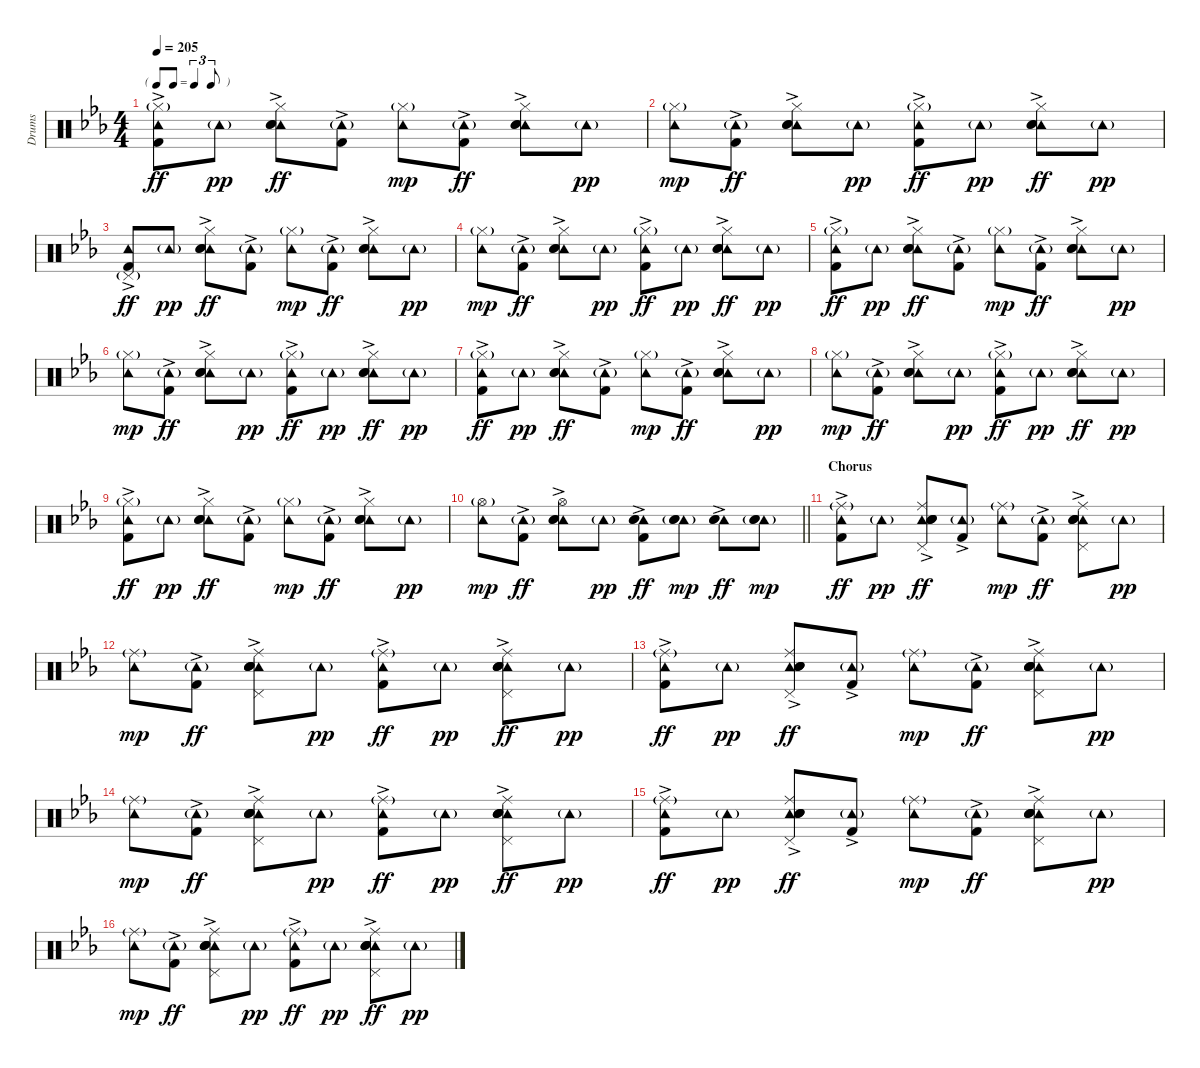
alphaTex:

\track ("Drums" "Drums") {instrument percussion}
\staff {score}
\articulation defaults
\ts (4 4)
\tf triplet8th
\tempo 205
\clef neutral
\ks eb
("Hi-Hat (closed)"{g} "Tambourine (hit)" "Kick (hit) 2"{ac}).8{dy ff} "Tambourine (hit)"{g}.8{dy pp} ("Hi-Hat (closed)" "Tambourine (hit)"{ac} "Electric Snare (hit)"{ac} "Snare (hit) 2").8{dy ff} ("Tambourine (hit)"{g} "Kick (hit) 2"{ac}).8 ("Hi-Hat (closed)"{g} "Tambourine (hit)").8{dy mp} ("Tambourine (hit)"{g} "Kick (hit) 2"{ac}).8{dy ff} ("Hi-Hat (closed)" "Tambourine (hit)"{ac} "Electric Snare (hit)"{ac} "Snare (hit) 2").8 "Tambourine (hit)"{g}.8{dy pp} |
("Hi-Hat (closed)"{g} "Tambourine (hit)").8{dy mp} ("Tambourine (hit)"{g} "Kick (hit) 2"{ac}).8{dy ff} ("Hi-Hat (closed)" "Tambourine (hit)"{ac} "Electric Snare (hit)"{ac} "Snare (hit) 2").8 "Tambourine (hit)"{g}.8{dy pp} ("Hi-Hat (closed)"{g} "Tambourine (hit)" "Kick (hit) 2"{ac}).8{dy ff} "Tambourine (hit)"{g}.8{dy pp} ("Hi-Hat (closed)" "Tambourine (hit)"{ac} "Electric Snare (hit)"{ac} "Snare (hit) 2").8{dy ff} "Tambourine (hit)"{g}.8{dy pp} |
("Pedal Hi-Hat (hit)"{g} "Tambourine (hit)" "Kick (hit) 2"{ac}).8{dy ff} "Tambourine (hit)"{g}.8{dy pp} ("Hi-Hat (closed)" "Tambourine (hit)"{ac} "Electric Snare (hit)"{ac} "Snare (hit) 2").8{dy ff} ("Tambourine (hit)"{g} "Kick (hit) 2"{ac}).8 ("Hi-Hat (closed)"{g} "Tambourine (hit)").8{dy mp} ("Tambourine (hit)"{g} "Kick (hit) 2"{ac}).8{dy ff} ("Hi-Hat (closed)" "Tambourine (hit)"{ac} "Electric Snare (hit)"{ac} "Snare (hit) 2").8 "Tambourine (hit)"{g}.8{dy pp} |
("Hi-Hat (closed)"{g} "Tambourine (hit)").8{dy mp} ("Tambourine (hit)"{g} "Kick (hit) 2"{ac}).8{dy ff} ("Hi-Hat (closed)" "Tambourine (hit)"{ac} "Electric Snare (hit)"{ac} "Snare (hit) 2").8 "Tambourine (hit)"{g}.8{dy pp} ("Hi-Hat (closed)"{g} "Tambourine (hit)" "Kick (hit) 2"{ac}).8{dy ff} "Tambourine (hit)"{g}.8{dy pp} ("Hi-Hat (closed)" "Tambourine (hit)"{ac} "Electric Snare (hit)"{ac} "Snare (hit) 2").8{dy ff} "Tambourine (hit)"{g}.8{dy pp} |
("Hi-Hat (closed)"{g} "Tambourine (hit)" "Kick (hit) 2"{ac}).8{dy ff} "Tambourine (hit)"{g}.8{dy pp} ("Hi-Hat (closed)" "Tambourine (hit)"{ac} "Electric Snare (hit)"{ac} "Snare (hit) 2").8{dy ff} ("Tambourine (hit)"{g} "Kick (hit) 2"{ac}).8 ("Hi-Hat (closed)"{g} "Tambourine (hit)").8{dy mp} ("Tambourine (hit)"{g} "Kick (hit) 2"{ac}).8{dy ff} ("Hi-Hat (closed)" "Tambourine (hit)"{ac} "Electric Snare (hit)"{ac} "Snare (hit) 2").8 "Tambourine (hit)"{g}.8{dy pp} |
("Hi-Hat (closed)"{g} "Tambourine (hit)").8{dy mp} ("Tambourine (hit)"{g} "Kick (hit) 2"{ac}).8{dy ff} ("Hi-Hat (closed)" "Tambourine (hit)"{ac} "Electric Snare (hit)"{ac} "Snare (hit) 2").8 "Tambourine (hit)"{g}.8{dy pp} ("Hi-Hat (closed)"{g} "Tambourine (hit)" "Kick (hit) 2"{ac}).8{dy ff} "Tambourine (hit)"{g}.8{dy pp} ("Hi-Hat (closed)" "Tambourine (hit)"{ac} "Electric Snare (hit)"{ac} "Snare (hit) 2").8{dy ff} "Tambourine (hit)"{g}.8{dy pp} |
("Hi-Hat (closed)"{g} "Tambourine (hit)" "Kick (hit) 2"{ac}).8{dy ff} "Tambourine (hit)"{g}.8{dy pp} ("Hi-Hat (closed)" "Tambourine (hit)"{ac} "Electric Snare (hit)"{ac} "Snare (hit) 2").8{dy ff} ("Tambourine (hit)"{g} "Kick (hit) 2"{ac}).8 ("Hi-Hat (closed)"{g} "Tambourine (hit)").8{dy mp} ("Tambourine (hit)"{g} "Kick (hit) 2"{ac}).8{dy ff} ("Hi-Hat (closed)" "Tambourine (hit)"{ac} "Electric Snare (hit)"{ac} "Snare (hit) 2").8 "Tambourine (hit)"{g}.8{dy pp} |
("Hi-Hat (closed)"{g} "Tambourine (hit)").8{dy mp} ("Tambourine (hit)"{g} "Kick (hit) 2"{ac}).8{dy ff} ("Hi-Hat (closed)" "Tambourine (hit)"{ac} "Electric Snare (hit)"{ac} "Snare (hit) 2").8 "Tambourine (hit)"{g}.8{dy pp} ("Hi-Hat (closed)"{g} "Tambourine (hit)" "Kick (hit) 2"{ac}).8{dy ff} "Tambourine (hit)"{g}.8{dy pp} ("Hi-Hat (closed)" "Tambourine (hit)"{ac} "Electric Snare (hit)"{ac} "Snare (hit) 2").8{dy ff} "Tambourine (hit)"{g}.8{dy pp} |
("Hi-Hat (closed)"{g} "Tambourine (hit)" "Kick (hit) 2"{ac}).8{dy ff} "Tambourine (hit)"{g}.8{dy pp} ("Hi-Hat (closed)" "Tambourine (hit)"{ac} "Electric Snare (hit)"{ac} "Snare (hit) 2").8{dy ff} ("Tambourine (hit)"{g} "Kick (hit) 2"{ac}).8 ("Hi-Hat (closed)"{g} "Tambourine (hit)").8{dy mp} ("Tambourine (hit)"{g} "Kick (hit) 2"{ac}).8{dy ff} ("Hi-Hat (closed)" "Tambourine (hit)"{ac} "Electric Snare (hit)"{ac} "Snare (hit) 2").8 "Tambourine (hit)"{g}.8{dy pp} |
\barLineRight lightlight
("Hi-Hat (open)"{g} "Tambourine (hit)").8{dy mp} ("Tambourine (hit)"{g} "Kick (hit) 2"{ac}).8{dy ff} ("Hi-Hat (open)" "Tambourine (hit)"{ac} "Electric Snare (hit)"{ac} "Snare (hit) 2").8 "Tambourine (hit)"{g}.8{dy pp} ("Tambourine (hit)" "Electric Snare (hit)"{ac} "Snare (hit) 2" "Kick (hit) 2"{ac}).8{dy ff} ("Tambourine (hit)"{g} "Electric Snare (hit)"{g} "Snare (hit) 2").8{dy mp} ("Tambourine (hit)"{ac} "Electric Snare (hit)"{ac} "Snare (hit) 2").8{dy ff} ("Tambourine (hit)"{g} "Electric Snare (hit)"{g} "Snare (hit) 2").8{dy mp} |
\section ("" "Chorus")
("Ride (middle)"{g} "Tambourine (hit)" "Kick (hit) 2"{ac}).8{dy ff} "Tambourine (hit)"{g}.8{dy pp} ("Ride (middle)" "Tambourine (hit)"{ac} "Hand Clap (hit)" "Electric Snare (hit)"{ac} "Snare (hit) 2" "Pedal Hi-Hat (hit)").8{dy ff} ("Tambourine (hit)"{g} "Kick (hit) 2"{ac}).8 ("Ride (middle)"{g} "Tambourine (hit)").8{dy mp} ("Tambourine (hit)"{g} "Kick (hit) 2"{ac}).8{dy ff} ("Ride (middle)" "Tambourine (hit)"{ac} "Hand Clap (hit)" "Electric Snare (hit)"{ac} "Snare (hit) 2" "Pedal Hi-Hat (hit)").8 "Tambourine (hit)"{g}.8{dy pp} |
("Ride (middle)"{g} "Tambourine (hit)").8{dy mp} ("Tambourine (hit)"{g} "Kick (hit) 2"{ac}).8{dy ff} ("Ride (middle)" "Tambourine (hit)"{ac} "Hand Clap (hit)" "Electric Snare (hit)"{ac} "Snare (hit) 2" "Pedal Hi-Hat (hit)").8 "Tambourine (hit)"{g}.8{dy pp} ("Ride (middle)"{g} "Tambourine (hit)" "Kick (hit) 2"{ac}).8{dy ff} "Tambourine (hit)"{g}.8{dy pp} ("Ride (middle)" "Tambourine (hit)"{ac} "Hand Clap (hit)" "Electric Snare (hit)"{ac} "Snare (hit) 2" "Pedal Hi-Hat (hit)").8{dy ff} "Tambourine (hit)"{g}.8{dy pp} |
("Ride (middle)"{g} "Tambourine (hit)" "Kick (hit) 2"{ac}).8{dy ff} "Tambourine (hit)"{g}.8{dy pp} ("Ride (middle)" "Tambourine (hit)"{ac} "Hand Clap (hit)" "Electric Snare (hit)"{ac} "Snare (hit) 2" "Pedal Hi-Hat (hit)").8{dy ff} ("Tambourine (hit)"{g} "Kick (hit) 2"{ac}).8 ("Ride (middle)"{g} "Tambourine (hit)").8{dy mp} ("Tambourine (hit)"{g} "Kick (hit) 2"{ac}).8{dy ff} ("Ride (middle)" "Tambourine (hit)"{ac} "Hand Clap (hit)" "Electric Snare (hit)"{ac} "Snare (hit) 2" "Pedal Hi-Hat (hit)").8 "Tambourine (hit)"{g}.8{dy pp} |
("Ride (middle)"{g} "Tambourine (hit)").8{dy mp} ("Tambourine (hit)"{g} "Kick (hit) 2"{ac}).8{dy ff} ("Ride (middle)" "Tambourine (hit)"{ac} "Hand Clap (hit)" "Electric Snare (hit)"{ac} "Snare (hit) 2" "Pedal Hi-Hat (hit)").8 "Tambourine (hit)"{g}.8{dy pp} ("Ride (middle)"{g} "Tambourine (hit)" "Kick (hit) 2"{ac}).8{dy ff} "Tambourine (hit)"{g}.8{dy pp} ("Ride (middle)" "Tambourine (hit)"{ac} "Hand Clap (hit)" "Electric Snare (hit)"{ac} "Snare (hit) 2" "Pedal Hi-Hat (hit)").8{dy ff} "Tambourine (hit)"{g}.8{dy pp} |
("Ride (middle)"{g} "Tambourine (hit)" "Kick (hit) 2"{ac}).8{dy ff} "Tambourine (hit)"{g}.8{dy pp} ("Ride (middle)" "Tambourine (hit)"{ac} "Hand Clap (hit)" "Electric Snare (hit)"{ac} "Snare (hit) 2" "Pedal Hi-Hat (hit)").8{dy ff} ("Tambourine (hit)"{g} "Kick (hit) 2"{ac}).8 ("Ride (middle)"{g} "Tambourine (hit)").8{dy mp} ("Tambourine (hit)"{g} "Kick (hit) 2"{ac}).8{dy ff} ("Ride (middle)" "Tambourine (hit)"{ac} "Hand Clap (hit)" "Electric Snare (hit)"{ac} "Snare (hit) 2" "Pedal Hi-Hat (hit)").8 "Tambourine (hit)"{g}.8{dy pp} |
("Ride (middle)"{g} "Tambourine (hit)").8{dy mp} ("Tambourine (hit)"{g} "Kick (hit) 2"{ac}).8{dy ff} ("Ride (middle)" "Tambourine (hit)"{ac} "Hand Clap (hit)" "Electric Snare (hit)"{ac} "Snare (hit) 2" "Pedal Hi-Hat (hit)").8 "Tambourine (hit)"{g}.8{dy pp} ("Ride (middle)"{g} "Tambourine (hit)" "Kick (hit) 2"{ac}).8{dy ff} "Tambourine (hit)"{g}.8{dy pp} ("Ride (middle)" "Tambourine (hit)"{ac} "Hand Clap (hit)" "Electric Snare (hit)"{ac} "Snare (hit) 2" "Pedal Hi-Hat (hit)").8{dy ff} "Tambourine (hit)"{g}.8{dy pp}
